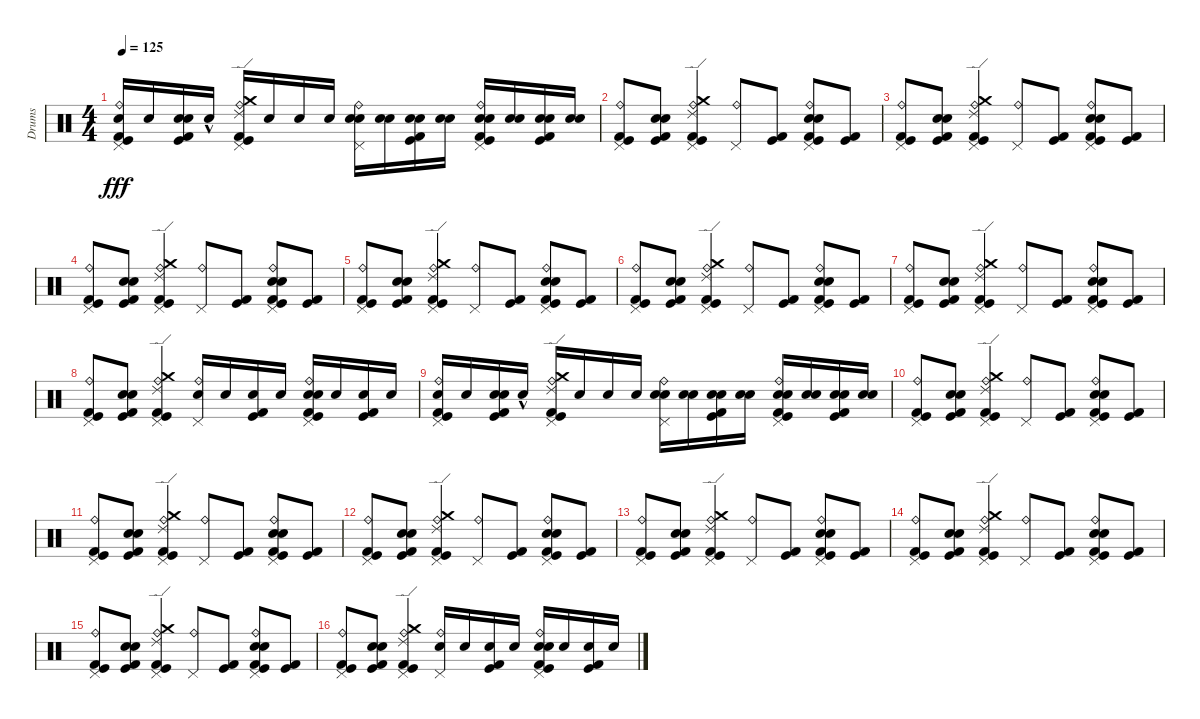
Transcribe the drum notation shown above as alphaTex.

\track ("Drums" "Drums") {instrument percussion}
\staff {score}
\articulation defaults
\ts (4 4)
\tempo 125
\clef neutral
\ks c
("Kick (hit) 2" "Kick (hit)" "Ride (bell)" "Electric Snare (hit)" "Pedal Hi-Hat (hit)").16{dy fff} "Electric Snare (hit)".16 ("Electric Snare (hit)" "Snare (hit) 2" "Kick (hit)" "Kick (hit) 2").16 "Electric Snare (hit)"{hac}.16 ("Pedal Hi-Hat (hit)" "Kick (hit) 2" "Kick (hit)" "Ride (bell)" "Crash medium (hit)" "Ride (edge) 2").16 "Electric Snare (hit)".16 "Electric Snare (hit)".16 "Electric Snare (hit)".16 ("Pedal Hi-Hat (hit)" "Ride (bell)" "Electric Snare (hit)" "Snare (hit) 2").16 ("Electric Snare (hit)" "Snare (hit) 2").16 ("Kick (hit) 2" "Kick (hit)" "Electric Snare (hit)" "Snare (hit) 2").16 ("Electric Snare (hit)" "Snare (hit) 2").16 ("Pedal Hi-Hat (hit)" "Electric Snare (hit)" "Snare (hit) 2" "Kick (hit) 2" "Kick (hit)" "Ride (bell)").16 ("Electric Snare (hit)" "Snare (hit) 2").16 ("Kick (hit) 2" "Kick (hit)" "Electric Snare (hit)" "Snare (hit) 2").16 ("Electric Snare (hit)" "Snare (hit) 2").16 |
("Pedal Hi-Hat (hit)" "Kick (hit) 2" "Kick (hit)" "Ride (bell)").8 ("Electric Snare (hit)" "Snare (hit) 2" "Kick (hit)" "Kick (hit) 2").8 ("Pedal Hi-Hat (hit)" "Kick (hit) 2" "Kick (hit)" "Ride (bell)" "Crash medium (hit)" "Ride (edge) 2").4 ("Pedal Hi-Hat (hit)" "Ride (bell)").8 ("Kick (hit) 2" "Kick (hit)").8 ("Pedal Hi-Hat (hit)" "Electric Snare (hit)" "Snare (hit) 2" "Kick (hit) 2" "Kick (hit)" "Ride (bell)").8 ("Kick (hit) 2" "Kick (hit)").8 |
("Pedal Hi-Hat (hit)" "Kick (hit) 2" "Kick (hit)" "Ride (bell)").8 ("Electric Snare (hit)" "Snare (hit) 2" "Kick (hit)" "Kick (hit) 2").8 ("Pedal Hi-Hat (hit)" "Kick (hit) 2" "Kick (hit)" "Ride (bell)" "Crash medium (hit)" "Ride (edge) 2").4 ("Pedal Hi-Hat (hit)" "Ride (bell)").8 ("Kick (hit) 2" "Kick (hit)").8 ("Pedal Hi-Hat (hit)" "Electric Snare (hit)" "Snare (hit) 2" "Kick (hit) 2" "Kick (hit)" "Ride (bell)").8 ("Kick (hit) 2" "Kick (hit)").8 |
("Pedal Hi-Hat (hit)" "Kick (hit) 2" "Kick (hit)" "Ride (bell)").8 ("Electric Snare (hit)" "Snare (hit) 2" "Kick (hit)" "Kick (hit) 2").8 ("Pedal Hi-Hat (hit)" "Kick (hit) 2" "Kick (hit)" "Ride (bell)" "Crash medium (hit)" "Ride (edge) 2").4 ("Pedal Hi-Hat (hit)" "Ride (bell)").8 ("Kick (hit) 2" "Kick (hit)").8 ("Pedal Hi-Hat (hit)" "Electric Snare (hit)" "Snare (hit) 2" "Kick (hit) 2" "Kick (hit)" "Ride (bell)").8 ("Kick (hit) 2" "Kick (hit)").8 |
("Pedal Hi-Hat (hit)" "Kick (hit) 2" "Kick (hit)" "Ride (bell)").8 ("Electric Snare (hit)" "Snare (hit) 2" "Kick (hit)" "Kick (hit) 2").8 ("Pedal Hi-Hat (hit)" "Kick (hit) 2" "Kick (hit)" "Ride (bell)" "Crash medium (hit)" "Ride (edge) 2").4 ("Pedal Hi-Hat (hit)" "Ride (bell)").8 ("Kick (hit) 2" "Kick (hit)").8 ("Pedal Hi-Hat (hit)" "Electric Snare (hit)" "Snare (hit) 2" "Kick (hit) 2" "Kick (hit)" "Ride (bell)").8 ("Kick (hit) 2" "Kick (hit)").8 |
("Pedal Hi-Hat (hit)" "Kick (hit) 2" "Kick (hit)" "Ride (bell)").8 ("Electric Snare (hit)" "Snare (hit) 2" "Kick (hit)" "Kick (hit) 2").8 ("Pedal Hi-Hat (hit)" "Kick (hit) 2" "Kick (hit)" "Ride (bell)" "Crash medium (hit)" "Ride (edge) 2").4 ("Pedal Hi-Hat (hit)" "Ride (bell)").8 ("Kick (hit) 2" "Kick (hit)").8 ("Pedal Hi-Hat (hit)" "Electric Snare (hit)" "Snare (hit) 2" "Kick (hit) 2" "Kick (hit)" "Ride (bell)").8 ("Kick (hit) 2" "Kick (hit)").8 |
("Pedal Hi-Hat (hit)" "Kick (hit) 2" "Kick (hit)" "Ride (bell)").8 ("Electric Snare (hit)" "Snare (hit) 2" "Kick (hit)" "Kick (hit) 2").8 ("Pedal Hi-Hat (hit)" "Kick (hit) 2" "Kick (hit)" "Ride (bell)" "Crash medium (hit)" "Ride (edge) 2").4 ("Pedal Hi-Hat (hit)" "Ride (bell)").8 ("Kick (hit) 2" "Kick (hit)").8 ("Pedal Hi-Hat (hit)" "Electric Snare (hit)" "Snare (hit) 2" "Kick (hit) 2" "Kick (hit)" "Ride (bell)").8 ("Kick (hit) 2" "Kick (hit)").8 |
("Pedal Hi-Hat (hit)" "Kick (hit) 2" "Kick (hit)" "Ride (bell)").8 ("Electric Snare (hit)" "Snare (hit) 2" "Kick (hit)" "Kick (hit) 2").8 ("Pedal Hi-Hat (hit)" "Kick (hit) 2" "Kick (hit)" "Ride (bell)" "Crash medium (hit)" "Ride (edge) 2").4 ("Pedal Hi-Hat (hit)" "Ride (bell)" "Electric Snare (hit)").16 "Electric Snare (hit)".16 ("Kick (hit) 2" "Kick (hit)" "Electric Snare (hit)").16 "Electric Snare (hit)".16 ("Pedal Hi-Hat (hit)" "Electric Snare (hit)" "Snare (hit) 2" "Kick (hit) 2" "Kick (hit)" "Ride (bell)").16 "Electric Snare (hit)".16 ("Kick (hit) 2" "Kick (hit)" "Electric Snare (hit)").16 "Electric Snare (hit)".16 |
("Kick (hit) 2" "Kick (hit)" "Ride (bell)" "Electric Snare (hit)" "Pedal Hi-Hat (hit)").16 "Electric Snare (hit)".16 ("Electric Snare (hit)" "Snare (hit) 2" "Kick (hit)" "Kick (hit) 2").16 "Electric Snare (hit)"{hac}.16 ("Pedal Hi-Hat (hit)" "Kick (hit) 2" "Kick (hit)" "Ride (bell)" "Crash medium (hit)" "Ride (edge) 2").16 "Electric Snare (hit)".16 "Electric Snare (hit)".16 "Electric Snare (hit)".16 ("Pedal Hi-Hat (hit)" "Ride (bell)" "Electric Snare (hit)" "Snare (hit) 2").16 ("Electric Snare (hit)" "Snare (hit) 2").16 ("Kick (hit) 2" "Kick (hit)" "Electric Snare (hit)" "Snare (hit) 2").16 ("Electric Snare (hit)" "Snare (hit) 2").16 ("Pedal Hi-Hat (hit)" "Electric Snare (hit)" "Snare (hit) 2" "Kick (hit) 2" "Kick (hit)" "Ride (bell)").16 ("Electric Snare (hit)" "Snare (hit) 2").16 ("Kick (hit) 2" "Kick (hit)" "Electric Snare (hit)" "Snare (hit) 2").16 ("Electric Snare (hit)" "Snare (hit) 2").16 |
("Pedal Hi-Hat (hit)" "Kick (hit) 2" "Kick (hit)" "Ride (bell)").8 ("Electric Snare (hit)" "Snare (hit) 2" "Kick (hit)" "Kick (hit) 2").8 ("Pedal Hi-Hat (hit)" "Kick (hit) 2" "Kick (hit)" "Ride (bell)" "Crash medium (hit)" "Ride (edge) 2").4 ("Pedal Hi-Hat (hit)" "Ride (bell)").8 ("Kick (hit) 2" "Kick (hit)").8 ("Pedal Hi-Hat (hit)" "Electric Snare (hit)" "Snare (hit) 2" "Kick (hit) 2" "Kick (hit)" "Ride (bell)").8 ("Kick (hit) 2" "Kick (hit)").8 |
("Pedal Hi-Hat (hit)" "Kick (hit) 2" "Kick (hit)" "Ride (bell)").8 ("Electric Snare (hit)" "Snare (hit) 2" "Kick (hit)" "Kick (hit) 2").8 ("Pedal Hi-Hat (hit)" "Kick (hit) 2" "Kick (hit)" "Ride (bell)" "Crash medium (hit)" "Ride (edge) 2").4 ("Pedal Hi-Hat (hit)" "Ride (bell)").8 ("Kick (hit) 2" "Kick (hit)").8 ("Pedal Hi-Hat (hit)" "Electric Snare (hit)" "Snare (hit) 2" "Kick (hit) 2" "Kick (hit)" "Ride (bell)").8 ("Kick (hit) 2" "Kick (hit)").8 |
("Pedal Hi-Hat (hit)" "Kick (hit) 2" "Kick (hit)" "Ride (bell)").8 ("Electric Snare (hit)" "Snare (hit) 2" "Kick (hit)" "Kick (hit) 2").8 ("Pedal Hi-Hat (hit)" "Kick (hit) 2" "Kick (hit)" "Ride (bell)" "Crash medium (hit)" "Ride (edge) 2").4 ("Pedal Hi-Hat (hit)" "Ride (bell)").8 ("Kick (hit) 2" "Kick (hit)").8 ("Pedal Hi-Hat (hit)" "Electric Snare (hit)" "Snare (hit) 2" "Kick (hit) 2" "Kick (hit)" "Ride (bell)").8 ("Kick (hit) 2" "Kick (hit)").8 |
("Pedal Hi-Hat (hit)" "Kick (hit) 2" "Kick (hit)" "Ride (bell)").8 ("Electric Snare (hit)" "Snare (hit) 2" "Kick (hit)" "Kick (hit) 2").8 ("Pedal Hi-Hat (hit)" "Kick (hit) 2" "Kick (hit)" "Ride (bell)" "Crash medium (hit)" "Ride (edge) 2").4 ("Pedal Hi-Hat (hit)" "Ride (bell)").8 ("Kick (hit) 2" "Kick (hit)").8 ("Pedal Hi-Hat (hit)" "Electric Snare (hit)" "Snare (hit) 2" "Kick (hit) 2" "Kick (hit)" "Ride (bell)").8 ("Kick (hit) 2" "Kick (hit)").8 |
("Pedal Hi-Hat (hit)" "Kick (hit) 2" "Kick (hit)" "Ride (bell)").8 ("Electric Snare (hit)" "Snare (hit) 2" "Kick (hit)" "Kick (hit) 2").8 ("Pedal Hi-Hat (hit)" "Kick (hit) 2" "Kick (hit)" "Ride (bell)" "Crash medium (hit)" "Ride (edge) 2").4 ("Pedal Hi-Hat (hit)" "Ride (bell)").8 ("Kick (hit) 2" "Kick (hit)").8 ("Pedal Hi-Hat (hit)" "Electric Snare (hit)" "Snare (hit) 2" "Kick (hit) 2" "Kick (hit)" "Ride (bell)").8 ("Kick (hit) 2" "Kick (hit)").8 |
("Pedal Hi-Hat (hit)" "Kick (hit) 2" "Kick (hit)" "Ride (bell)").8 ("Electric Snare (hit)" "Snare (hit) 2" "Kick (hit)" "Kick (hit) 2").8 ("Pedal Hi-Hat (hit)" "Kick (hit) 2" "Kick (hit)" "Ride (bell)" "Crash medium (hit)" "Ride (edge) 2").4 ("Pedal Hi-Hat (hit)" "Ride (bell)").8 ("Kick (hit) 2" "Kick (hit)").8 ("Pedal Hi-Hat (hit)" "Electric Snare (hit)" "Snare (hit) 2" "Kick (hit) 2" "Kick (hit)" "Ride (bell)").8 ("Kick (hit) 2" "Kick (hit)").8 |
("Pedal Hi-Hat (hit)" "Kick (hit) 2" "Kick (hit)" "Ride (bell)").8 ("Electric Snare (hit)" "Snare (hit) 2" "Kick (hit)" "Kick (hit) 2").8 ("Pedal Hi-Hat (hit)" "Kick (hit) 2" "Kick (hit)" "Ride (bell)" "Crash medium (hit)" "Ride (edge) 2").4 ("Pedal Hi-Hat (hit)" "Ride (bell)" "Electric Snare (hit)").16 "Electric Snare (hit)".16 ("Kick (hit) 2" "Kick (hit)" "Electric Snare (hit)").16 "Electric Snare (hit)".16 ("Pedal Hi-Hat (hit)" "Electric Snare (hit)" "Snare (hit) 2" "Kick (hit) 2" "Kick (hit)" "Ride (bell)").16 "Electric Snare (hit)".16 ("Kick (hit) 2" "Kick (hit)" "Electric Snare (hit)").16 "Electric Snare (hit)".16
